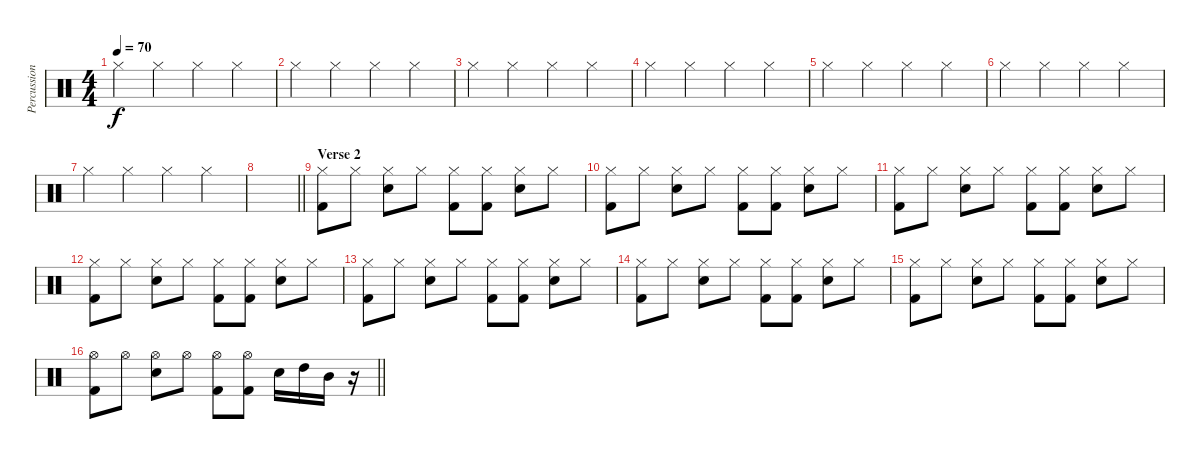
\track ("Percussion" "Percussion") {instrument percussion}
\staff {score}
\articulation defaults
\ts (4 4)
\tempo 70
\clef neutral
\ks c "Hi-Hat (closed)".4{dy f} "Hi-Hat (closed)".4 "Hi-Hat (closed)".4 "Hi-Hat (closed)".4
|
"Hi-Hat (closed)".4 "Hi-Hat (closed)".4 "Hi-Hat (closed)".4 "Hi-Hat (closed)".4 |
"Hi-Hat (closed)".4 "Hi-Hat (closed)".4 "Hi-Hat (closed)".4 "Hi-Hat (closed)".4 |
"Hi-Hat (closed)".4 "Hi-Hat (closed)".4 "Hi-Hat (closed)".4 "Hi-Hat (closed)".4 |
"Hi-Hat (closed)".4 "Hi-Hat (closed)".4 "Hi-Hat (closed)".4 "Hi-Hat (closed)".4 |
"Hi-Hat (closed)".4 "Hi-Hat (closed)".4 "Hi-Hat (closed)".4 "Hi-Hat (closed)".4 |
"Hi-Hat (closed)".4 "Hi-Hat (closed)".4 "Hi-Hat (closed)".4 "Hi-Hat (closed)".4 |
\barLineRight lightlight
|
\section ("" "Verse 2")
("Hi-Hat (closed)" "Kick (hit) 2").8 "Hi-Hat (closed)".8 ("Hi-Hat (closed)" "Snare (hit) 2").8 "Hi-Hat (closed)".8 ("Hi-Hat (closed)" "Kick (hit) 2").8 ("Hi-Hat (closed)" "Kick (hit) 2").8 ("Hi-Hat (closed)" "Snare (hit) 2").8 "Hi-Hat (closed)".8 |
("Hi-Hat (closed)" "Kick (hit) 2").8 "Hi-Hat (closed)".8 ("Hi-Hat (closed)" "Snare (hit) 2").8 "Hi-Hat (closed)".8 ("Hi-Hat (closed)" "Kick (hit) 2").8 ("Hi-Hat (closed)" "Kick (hit) 2").8 ("Hi-Hat (closed)" "Snare (hit) 2").8 "Hi-Hat (closed)".8 |
("Hi-Hat (closed)" "Kick (hit) 2").8 "Hi-Hat (closed)".8 ("Hi-Hat (closed)" "Snare (hit) 2").8 "Hi-Hat (closed)".8 ("Hi-Hat (closed)" "Kick (hit) 2").8 ("Hi-Hat (closed)" "Kick (hit) 2").8 ("Hi-Hat (closed)" "Snare (hit) 2").8 "Hi-Hat (closed)".8 |
("Hi-Hat (closed)" "Kick (hit) 2").8 "Hi-Hat (closed)".8 ("Hi-Hat (closed)" "Snare (hit) 2").8 "Hi-Hat (closed)".8 ("Hi-Hat (closed)" "Kick (hit) 2").8 ("Hi-Hat (closed)" "Kick (hit) 2").8 ("Hi-Hat (closed)" "Snare (hit) 2").8 "Hi-Hat (closed)".8 |
("Hi-Hat (closed)" "Kick (hit) 2").8 "Hi-Hat (closed)".8 ("Hi-Hat (closed)" "Snare (hit) 2").8 "Hi-Hat (closed)".8 ("Hi-Hat (closed)" "Kick (hit) 2").8 ("Hi-Hat (closed)" "Kick (hit) 2").8 ("Hi-Hat (closed)" "Snare (hit) 2").8 "Hi-Hat (closed)".8 |
("Hi-Hat (closed)" "Kick (hit) 2").8 "Hi-Hat (closed)".8 ("Hi-Hat (closed)" "Snare (hit) 2").8 "Hi-Hat (closed)".8 ("Hi-Hat (closed)" "Kick (hit) 2").8 ("Hi-Hat (closed)" "Kick (hit) 2").8 ("Hi-Hat (closed)" "Snare (hit) 2").8 "Hi-Hat (closed)".8 |
("Hi-Hat (closed)" "Kick (hit) 2").8 "Hi-Hat (closed)".8 ("Hi-Hat (closed)" "Snare (hit) 2").8 "Hi-Hat (closed)".8 ("Hi-Hat (closed)" "Kick (hit) 2").8 ("Hi-Hat (closed)" "Kick (hit) 2").8 ("Hi-Hat (closed)" "Snare (hit) 2").8 "Hi-Hat (closed)".8 |
\barLineRight lightlight
("Hi-Hat (open)" "Kick (hit) 2").8 "Hi-Hat (open)".8 ("Hi-Hat (open)" "Snare (hit) 2").8 "Hi-Hat (open)".8 ("Hi-Hat (open)" "Kick (hit) 2").8 ("Hi-Hat (open)" "Kick (hit) 2").8 "Snare (hit) 2".16 "High Tom (hit)".16 "Mid Tom (hit)".16 r.16
